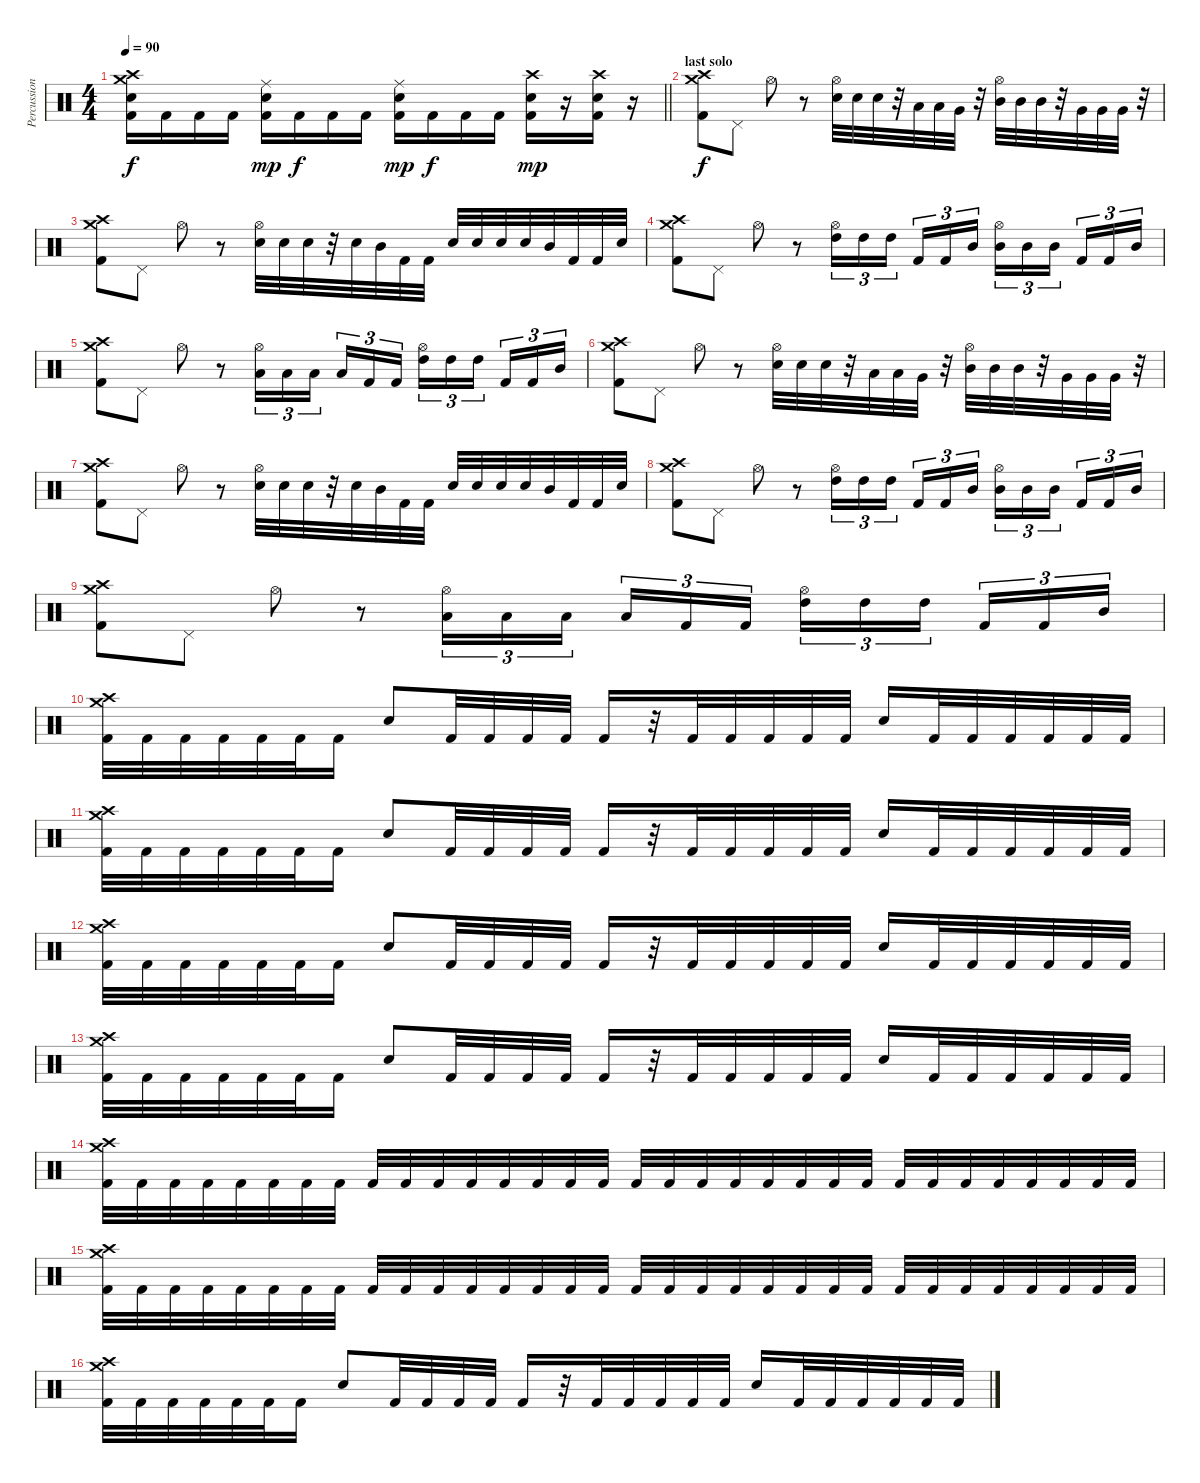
\track ("Percussion" "Percussion") {instrument percussion}
\staff {score}
\articulation defaults
\ts (4 4)
\tempo 90
\clef neutral
\barLineRight lightlight
\ks c
("Crash high (hit)" "Crash medium (hit)" "Snare (hit) 2" "Kick (hit) 2").16{dy f} "Kick (hit) 2".16 "Kick (hit) 2".16 "Kick (hit) 2".16 ("Ride (middle)" "Snare (hit) 2" "Kick (hit) 2").16{dy mp} "Kick (hit) 2".16{dy f} "Kick (hit) 2".16 "Kick (hit) 2".16 ("Ride (middle)" "Snare (hit) 2" "Kick (hit) 2").16{dy mp} "Kick (hit) 2".16{dy f} "Kick (hit) 2".16 "Kick (hit) 2".16 ("Crash high (hit)" "Snare (hit) 2" "Kick (hit) 2").16{dy mp} r.16 ("Crash high (hit)" "Snare (hit) 2" "Kick (hit) 2").16 r.16 |
\section ("" "last solo")
("Crash high (hit)" "Crash medium (hit)" "Kick (hit) 2").8{dy f} "Pedal Hi-Hat (hit)".8 "Hi-Hat (open)".8 r.8 ("Hi-Hat (open)" "Snare (hit) 2").32 "Snare (hit) 2".32 "Snare (hit) 2".32 r.32 "Low Tom (hit)".32 "Low Tom (hit)".32 "Very Low Tom (hit)".32 r.32 ("Hi-Hat (open)" "Mid Tom (hit)").32 "Mid Tom (hit)".32 "Mid Tom (hit)".32 r.32 "Very Low Tom (hit)".32 "Very Low Tom (hit)".32 "Very Low Tom (hit)".32 r.32 |
("Crash high (hit)" "Crash medium (hit)" "Kick (hit) 2").8 "Pedal Hi-Hat (hit)".8 "Hi-Hat (open)".8 r.8 ("Hi-Hat (open)" "Snare (hit) 2").32 "Snare (hit) 2".32 "Snare (hit) 2".32 r.32 "Snare (hit) 2".32 "Mid Tom (hit)".32 "Kick (hit) 2".32 "Kick (hit) 2".32 "Snare (hit) 2".32 "Snare (hit) 2".32 "Snare (hit) 2".32 "Snare (hit) 2".32 "Mid Tom (hit)".32 "Kick (hit) 2".32 "Kick (hit) 2".32 "Snare (hit) 2".32 |
("Crash high (hit)" "Crash medium (hit)" "Kick (hit) 2").8 "Pedal Hi-Hat (hit)".8 "Hi-Hat (open)".8 r.8 ("Hi-Hat (open)" "High Tom (hit)").16{tu (3 2)} "High Tom (hit)".16{tu (3 2)} "High Tom (hit)".16{tu (3 2) beam splitsecondary} "Kick (hit) 2".16{tu (3 2)} "Kick (hit) 2".16{tu (3 2)} "Mid Tom (hit)".16{tu (3 2)} ("Hi-Hat (open)" "Mid Tom (hit)").16{tu (3 2)} "Mid Tom (hit)".16{tu (3 2)} "Mid Tom (hit)".16{tu (3 2) beam splitsecondary} "Kick (hit) 2".16{tu (3 2)} "Kick (hit) 2".16{tu (3 2)} "Mid Tom (hit)".16{tu (3 2)} |
("Crash high (hit)" "Crash medium (hit)" "Kick (hit) 2").8 "Pedal Hi-Hat (hit)".8 "Hi-Hat (open)".8 r.8 ("Hi-Hat (open)" "Low Tom (hit)").16{tu (3 2)} "Low Tom (hit)".16{tu (3 2)} "Low Tom (hit)".16{tu (3 2) beam splitsecondary} "Low Tom (hit)".16{tu (3 2)} "Kick (hit) 2".16{tu (3 2)} "Kick (hit) 2".16{tu (3 2)} ("Hi-Hat (open)" "High Tom (hit)").16{tu (3 2)} "High Tom (hit)".16{tu (3 2)} "High Tom (hit)".16{tu (3 2) beam splitsecondary} "Kick (hit) 2".16{tu (3 2)} "Kick (hit) 2".16{tu (3 2)} "Mid Tom (hit)".16{tu (3 2)} |
("Crash high (hit)" "Crash medium (hit)" "Kick (hit) 2").8 "Pedal Hi-Hat (hit)".8 "Hi-Hat (open)".8 r.8 ("Hi-Hat (open)" "Snare (hit) 2").32 "Snare (hit) 2".32 "Snare (hit) 2".32 r.32 "Low Tom (hit)".32 "Low Tom (hit)".32 "Very Low Tom (hit)".32 r.32 ("Hi-Hat (open)" "Mid Tom (hit)").32 "Mid Tom (hit)".32 "Mid Tom (hit)".32 r.32 "Very Low Tom (hit)".32 "Very Low Tom (hit)".32 "Very Low Tom (hit)".32 r.32 |
("Crash high (hit)" "Crash medium (hit)" "Kick (hit) 2").8 "Pedal Hi-Hat (hit)".8 "Hi-Hat (open)".8 r.8 ("Hi-Hat (open)" "Snare (hit) 2").32 "Snare (hit) 2".32 "Snare (hit) 2".32 r.32 "Snare (hit) 2".32 "Mid Tom (hit)".32 "Kick (hit) 2".32 "Kick (hit) 2".32 "Snare (hit) 2".32 "Snare (hit) 2".32 "Snare (hit) 2".32 "Snare (hit) 2".32 "Mid Tom (hit)".32 "Kick (hit) 2".32 "Kick (hit) 2".32 "Snare (hit) 2".32 |
("Crash high (hit)" "Crash medium (hit)" "Kick (hit) 2").8 "Pedal Hi-Hat (hit)".8 "Hi-Hat (open)".8 r.8 ("Hi-Hat (open)" "High Tom (hit)").16{tu (3 2)} "High Tom (hit)".16{tu (3 2)} "High Tom (hit)".16{tu (3 2) beam splitsecondary} "Kick (hit) 2".16{tu (3 2)} "Kick (hit) 2".16{tu (3 2)} "Mid Tom (hit)".16{tu (3 2)} ("Hi-Hat (open)" "Mid Tom (hit)").16{tu (3 2)} "Mid Tom (hit)".16{tu (3 2)} "Mid Tom (hit)".16{tu (3 2) beam splitsecondary} "Kick (hit) 2".16{tu (3 2)} "Kick (hit) 2".16{tu (3 2)} "Mid Tom (hit)".16{tu (3 2)} |
("Crash high (hit)" "Crash medium (hit)" "Kick (hit) 2").8 "Pedal Hi-Hat (hit)".8 "Hi-Hat (open)".8 r.8 ("Hi-Hat (open)" "Low Tom (hit)").16{tu (3 2)} "Low Tom (hit)".16{tu (3 2)} "Low Tom (hit)".16{tu (3 2) beam splitsecondary} "Low Tom (hit)".16{tu (3 2)} "Kick (hit) 2".16{tu (3 2)} "Kick (hit) 2".16{tu (3 2)} ("Hi-Hat (open)" "High Tom (hit)").16{tu (3 2)} "High Tom (hit)".16{tu (3 2)} "High Tom (hit)".16{tu (3 2) beam splitsecondary} "Kick (hit) 2".16{tu (3 2)} "Kick (hit) 2".16{tu (3 2)} "Mid Tom (hit)".16{tu (3 2)} |
("Crash high (hit)" "Crash medium (hit)" "Kick (hit) 2").32 "Kick (hit) 2".32 "Kick (hit) 2".32 "Kick (hit) 2".32 "Kick (hit) 2".32 "Kick (hit) 2".32 "Kick (hit) 2".16 "Electric Snare (hit)".8 "Kick (hit) 2".32 "Kick (hit) 2".32 "Kick (hit) 2".32 "Kick (hit) 2".32 "Kick (hit) 2".16 r.32 "Kick (hit) 2".32 "Kick (hit) 2".32 "Kick (hit) 2".32 "Kick (hit) 2".32 "Kick (hit) 2".32 "Electric Snare (hit)".16 "Kick (hit) 2".32 "Kick (hit) 2".32 "Kick (hit) 2".32 "Kick (hit) 2".32 "Kick (hit) 2".32 "Kick (hit) 2".32 |
("Crash high (hit)" "Crash medium (hit)" "Kick (hit) 2").32 "Kick (hit) 2".32 "Kick (hit) 2".32 "Kick (hit) 2".32 "Kick (hit) 2".32 "Kick (hit) 2".32 "Kick (hit) 2".16 "Electric Snare (hit)".8 "Kick (hit) 2".32 "Kick (hit) 2".32 "Kick (hit) 2".32 "Kick (hit) 2".32 "Kick (hit) 2".16 r.32 "Kick (hit) 2".32 "Kick (hit) 2".32 "Kick (hit) 2".32 "Kick (hit) 2".32 "Kick (hit) 2".32 "Electric Snare (hit)".16 "Kick (hit) 2".32 "Kick (hit) 2".32 "Kick (hit) 2".32 "Kick (hit) 2".32 "Kick (hit) 2".32 "Kick (hit) 2".32 |
("Crash high (hit)" "Crash medium (hit)" "Kick (hit) 2").32 "Kick (hit) 2".32 "Kick (hit) 2".32 "Kick (hit) 2".32 "Kick (hit) 2".32 "Kick (hit) 2".32 "Kick (hit) 2".16 "Electric Snare (hit)".8 "Kick (hit) 2".32 "Kick (hit) 2".32 "Kick (hit) 2".32 "Kick (hit) 2".32 "Kick (hit) 2".16 r.32 "Kick (hit) 2".32 "Kick (hit) 2".32 "Kick (hit) 2".32 "Kick (hit) 2".32 "Kick (hit) 2".32 "Electric Snare (hit)".16 "Kick (hit) 2".32 "Kick (hit) 2".32 "Kick (hit) 2".32 "Kick (hit) 2".32 "Kick (hit) 2".32 "Kick (hit) 2".32 |
("Crash high (hit)" "Crash medium (hit)" "Kick (hit) 2").32 "Kick (hit) 2".32 "Kick (hit) 2".32 "Kick (hit) 2".32 "Kick (hit) 2".32 "Kick (hit) 2".32 "Kick (hit) 2".16 "Electric Snare (hit)".8 "Kick (hit) 2".32 "Kick (hit) 2".32 "Kick (hit) 2".32 "Kick (hit) 2".32 "Kick (hit) 2".16 r.32 "Kick (hit) 2".32 "Kick (hit) 2".32 "Kick (hit) 2".32 "Kick (hit) 2".32 "Kick (hit) 2".32 "Electric Snare (hit)".16 "Kick (hit) 2".32 "Kick (hit) 2".32 "Kick (hit) 2".32 "Kick (hit) 2".32 "Kick (hit) 2".32 "Kick (hit) 2".32 |
("Crash high (hit)" "Crash medium (hit)" "Kick (hit) 2").32 "Kick (hit) 2".32 "Kick (hit) 2".32 "Kick (hit) 2".32 "Kick (hit) 2".32 "Kick (hit) 2".32 "Kick (hit) 2".32 "Kick (hit) 2".32 "Kick (hit) 2".32 "Kick (hit) 2".32 "Kick (hit) 2".32 "Kick (hit) 2".32 "Kick (hit) 2".32 "Kick (hit) 2".32 "Kick (hit) 2".32 "Kick (hit) 2".32 "Kick (hit) 2".32 "Kick (hit) 2".32 "Kick (hit) 2".32 "Kick (hit) 2".32 "Kick (hit) 2".32 "Kick (hit) 2".32 "Kick (hit) 2".32 "Kick (hit) 2".32 "Kick (hit) 2".32 "Kick (hit) 2".32 "Kick (hit) 2".32 "Kick (hit) 2".32 "Kick (hit) 2".32 "Kick (hit) 2".32 "Kick (hit) 2".32 "Kick (hit) 2".32 |
("Crash high (hit)" "Crash medium (hit)" "Kick (hit) 2").32 "Kick (hit) 2".32 "Kick (hit) 2".32 "Kick (hit) 2".32 "Kick (hit) 2".32 "Kick (hit) 2".32 "Kick (hit) 2".32 "Kick (hit) 2".32 "Kick (hit) 2".32 "Kick (hit) 2".32 "Kick (hit) 2".32 "Kick (hit) 2".32 "Kick (hit) 2".32 "Kick (hit) 2".32 "Kick (hit) 2".32 "Kick (hit) 2".32 "Kick (hit) 2".32 "Kick (hit) 2".32 "Kick (hit) 2".32 "Kick (hit) 2".32 "Kick (hit) 2".32 "Kick (hit) 2".32 "Kick (hit) 2".32 "Kick (hit) 2".32 "Kick (hit) 2".32 "Kick (hit) 2".32 "Kick (hit) 2".32 "Kick (hit) 2".32 "Kick (hit) 2".32 "Kick (hit) 2".32 "Kick (hit) 2".32 "Kick (hit) 2".32 |
("Crash high (hit)" "Crash medium (hit)" "Kick (hit) 2").32 "Kick (hit) 2".32 "Kick (hit) 2".32 "Kick (hit) 2".32 "Kick (hit) 2".32 "Kick (hit) 2".32 "Kick (hit) 2".16 "Electric Snare (hit)".8 "Kick (hit) 2".32 "Kick (hit) 2".32 "Kick (hit) 2".32 "Kick (hit) 2".32 "Kick (hit) 2".16 r.32 "Kick (hit) 2".32 "Kick (hit) 2".32 "Kick (hit) 2".32 "Kick (hit) 2".32 "Kick (hit) 2".32 "Electric Snare (hit)".16 "Kick (hit) 2".32 "Kick (hit) 2".32 "Kick (hit) 2".32 "Kick (hit) 2".32 "Kick (hit) 2".32 "Kick (hit) 2".32
